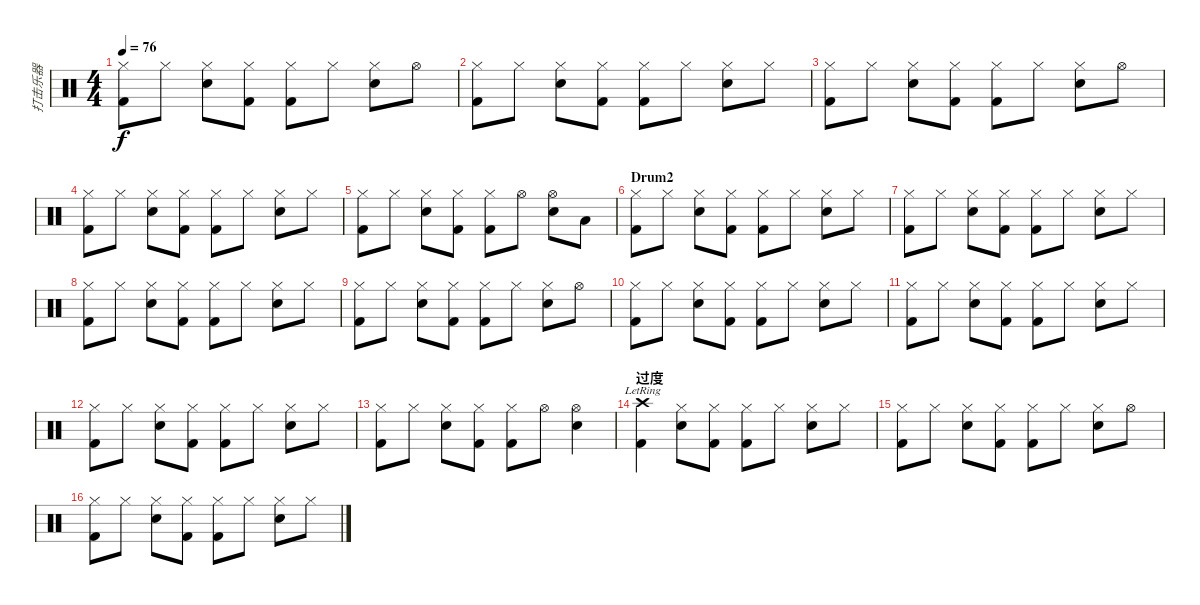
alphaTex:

\track ("打击乐器" "打击乐器") {instrument percussion}
\staff {score}
\articulation defaults
\ts (4 4)
\tempo 76
\clef neutral
\ks c
("Hi-Hat (closed)" "Kick (hit) 2").8{dy f} "Hi-Hat (closed)".8 ("Hi-Hat (closed)" "Snare (hit) 2").8 ("Hi-Hat (closed)" "Kick (hit) 2").8 ("Hi-Hat (closed)" "Kick (hit) 2").8 "Hi-Hat (closed)".8 ("Hi-Hat (closed)" "Snare (hit) 2").8 "Hi-Hat (open)".8 |
("Hi-Hat (closed)" "Kick (hit) 2").8 "Hi-Hat (closed)".8 ("Hi-Hat (closed)" "Snare (hit) 2").8 ("Hi-Hat (closed)" "Kick (hit) 2").8 ("Hi-Hat (closed)" "Kick (hit) 2").8 "Hi-Hat (closed)".8 ("Hi-Hat (closed)" "Snare (hit) 2").8 "Hi-Hat (closed)".8 |
("Hi-Hat (closed)" "Kick (hit) 2").8 "Hi-Hat (closed)".8 ("Hi-Hat (closed)" "Snare (hit) 2").8 ("Hi-Hat (closed)" "Kick (hit) 2").8 ("Hi-Hat (closed)" "Kick (hit) 2").8 "Hi-Hat (closed)".8 ("Hi-Hat (closed)" "Snare (hit) 2").8 "Hi-Hat (open)".8 |
("Hi-Hat (closed)" "Kick (hit) 2").8 "Hi-Hat (closed)".8 ("Hi-Hat (closed)" "Snare (hit) 2").8 ("Hi-Hat (closed)" "Kick (hit) 2").8 ("Hi-Hat (closed)" "Kick (hit) 2").8 "Hi-Hat (closed)".8 ("Hi-Hat (closed)" "Snare (hit) 2").8 "Hi-Hat (closed)".8 |
("Hi-Hat (closed)" "Kick (hit) 2").8 "Hi-Hat (closed)".8 ("Hi-Hat (closed)" "Snare (hit) 2").8 ("Hi-Hat (closed)" "Kick (hit) 2").8 ("Hi-Hat (closed)" "Kick (hit) 2").8 "Hi-Hat (open)".8 ("Hi-Hat (open)" "Snare (hit) 2").8 "Low Floor Tom (hit)".8 |
\section ("" "Drum2")
("Hi-Hat (closed)" "Kick (hit) 2").8 "Hi-Hat (closed)".8 ("Hi-Hat (closed)" "Snare (hit) 2").8 ("Hi-Hat (closed)" "Kick (hit) 2").8 ("Hi-Hat (closed)" "Kick (hit) 2").8 "Hi-Hat (closed)".8 ("Hi-Hat (closed)" "Snare (hit) 2").8 "Hi-Hat (closed)".8 |
("Hi-Hat (closed)" "Kick (hit) 2").8 "Hi-Hat (closed)".8 ("Hi-Hat (closed)" "Snare (hit) 2").8 ("Hi-Hat (closed)" "Kick (hit) 2").8 ("Hi-Hat (closed)" "Kick (hit) 2").8 "Hi-Hat (closed)".8 ("Hi-Hat (closed)" "Snare (hit) 2").8 "Hi-Hat (closed)".8 |
("Hi-Hat (closed)" "Kick (hit) 2").8 "Hi-Hat (closed)".8 ("Hi-Hat (closed)" "Snare (hit) 2").8 ("Hi-Hat (closed)" "Kick (hit) 2").8 ("Hi-Hat (closed)" "Kick (hit) 2").8 "Hi-Hat (closed)".8 ("Hi-Hat (closed)" "Snare (hit) 2").8 "Hi-Hat (closed)".8 |
("Hi-Hat (closed)" "Kick (hit) 2").8 "Hi-Hat (closed)".8 ("Hi-Hat (closed)" "Snare (hit) 2").8 ("Hi-Hat (closed)" "Kick (hit) 2").8 ("Hi-Hat (closed)" "Kick (hit) 2").8 "Hi-Hat (closed)".8 ("Hi-Hat (closed)" "Snare (hit) 2").8 "Hi-Hat (open)".8 |
("Hi-Hat (closed)" "Kick (hit) 2").8 "Hi-Hat (closed)".8 ("Hi-Hat (closed)" "Snare (hit) 2").8 ("Hi-Hat (closed)" "Kick (hit) 2").8 ("Hi-Hat (closed)" "Kick (hit) 2").8 "Hi-Hat (closed)".8 ("Hi-Hat (closed)" "Snare (hit) 2").8 "Hi-Hat (closed)".8 |
("Hi-Hat (closed)" "Kick (hit) 2").8 "Hi-Hat (closed)".8 ("Hi-Hat (closed)" "Snare (hit) 2").8 ("Hi-Hat (closed)" "Kick (hit) 2").8 ("Hi-Hat (closed)" "Kick (hit) 2").8 "Hi-Hat (closed)".8 ("Hi-Hat (closed)" "Snare (hit) 2").8 "Hi-Hat (closed)".8 |
("Hi-Hat (closed)" "Kick (hit) 2").8 "Hi-Hat (closed)".8 ("Hi-Hat (closed)" "Snare (hit) 2").8 ("Hi-Hat (closed)" "Kick (hit) 2").8 ("Hi-Hat (closed)" "Kick (hit) 2").8 "Hi-Hat (closed)".8 ("Hi-Hat (closed)" "Snare (hit) 2").8 "Hi-Hat (closed)".8 |
("Hi-Hat (closed)" "Kick (hit) 2").8 "Hi-Hat (closed)".8 ("Hi-Hat (closed)" "Snare (hit) 2").8 ("Hi-Hat (closed)" "Kick (hit) 2").8 ("Hi-Hat (closed)" "Kick (hit) 2").8 "Hi-Hat (open)".8 ("Hi-Hat (open)" "Snare (hit) 2").4 |
\section ("" "过度")
("Crash high (hit)"{lr} "Kick (hit) 2").4 ("Hi-Hat (closed)" "Snare (hit) 2").8 ("Hi-Hat (closed)" "Kick (hit) 2").8 ("Hi-Hat (closed)" "Kick (hit) 2").8 "Hi-Hat (closed)".8 ("Hi-Hat (closed)" "Snare (hit) 2").8 "Hi-Hat (closed)".8 |
("Hi-Hat (closed)" "Kick (hit) 2").8 "Hi-Hat (closed)".8 ("Hi-Hat (closed)" "Snare (hit) 2").8 ("Hi-Hat (closed)" "Kick (hit) 2").8 ("Hi-Hat (closed)" "Kick (hit) 2").8 "Hi-Hat (closed)".8 ("Hi-Hat (closed)" "Snare (hit) 2").8 "Hi-Hat (open)".8 |
("Hi-Hat (closed)" "Kick (hit) 2").8 "Hi-Hat (closed)".8 ("Hi-Hat (closed)" "Snare (hit) 2").8 ("Hi-Hat (closed)" "Kick (hit) 2").8 ("Hi-Hat (closed)" "Kick (hit) 2").8 "Hi-Hat (closed)".8 ("Hi-Hat (closed)" "Snare (hit) 2").8 "Hi-Hat (closed)".8
